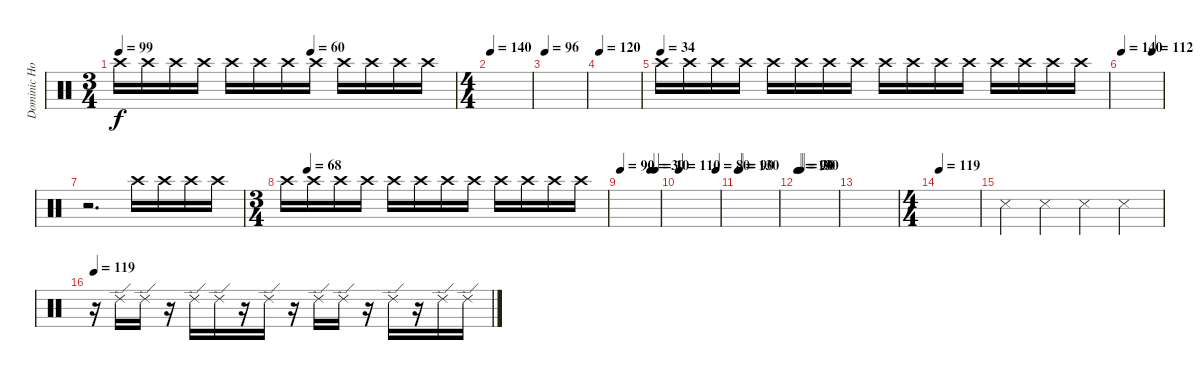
\track ("Dominic Howard" "Dominic Ho") {instrument percussion}
\staff {score}
\articulation defaults
\ts (3 4)
\tempo 99
\tempo (60 0.5711805555555556)
\clef neutral
\ks c "Crash high (hit)".16{dy f} "Crash high (hit)".16 "Crash high (hit)".16 "Crash high (hit)".16 "Crash high (hit)".16 "Crash high (hit)".16 "Crash high (hit)".16 "Crash high (hit)".16 "Crash high (hit)".16 "Crash high (hit)".16 "Crash high (hit)".16 "Crash high (hit)".16
|
\ts (4 4)
\tempo 140
|
\tempo 96
|
\tempo 120
|
\tempo (34)
"Crash high (hit)".16{volume 4} "Crash high (hit)".16{volume 16} "Crash high (hit)".16 "Crash high (hit)".16 "Crash high (hit)".16 "Crash high (hit)".16 "Crash high (hit)".16 "Crash high (hit)".16 "Crash high (hit)".16 "Crash high (hit)".16 "Crash high (hit)".16 "Crash high (hit)".16 "Crash high (hit)".16 "Crash high (hit)".16 "Crash high (hit)".16 "Crash high (hit)".16 |
\tempo 140
\tempo (112 0.75)
|
r.2{d} "Crash high (hit)".16{volume 4} "Crash high (hit)".16{volume 16} "Crash high (hit)".16 "Crash high (hit)".16 |
\ts (3 4)
\tempo (68 0.06666666666666667)
"Crash high (hit)".16 "Crash high (hit)".16 "Crash high (hit)".16 "Crash high (hit)".16 "Crash high (hit)".16 "Crash high (hit)".16 "Crash high (hit)".16 "Crash high (hit)".16 "Crash high (hit)".16 "Crash high (hit)".16 "Crash high (hit)".16 "Crash high (hit)".16 |
\tempo 90
\tempo (30 0.7777777777777778)
\tempo (10 0.8888888888888888)
|
\tempo 110
\tempo (80 0.9166666666666666)
|
\tempo 130
\tempo (90 0.041666666666666664)
|
\tempo 130
\tempo (90 0.041666666666666664)
\tempo (30 0.08333333333333333)
|
|
\ts (4 4)
\tempo 119
|
"Snare (side stick) 3".4 "Snare (side stick) 3".4 "Snare (side stick) 3".4 "Snare (side stick) 3".4 |
\tempo 119
r.16 "Ride (edge) 2".16 "Ride (edge) 2".16 r.16 "Ride (edge) 2".16 "Ride (edge) 2".16 r.16 "Ride (edge) 2".16 r.16 "Ride (edge) 2".16 "Ride (edge) 2".16 r.16 "Ride (edge) 2".16 r.16 "Ride (edge) 2".16 "Ride (edge) 2".16
